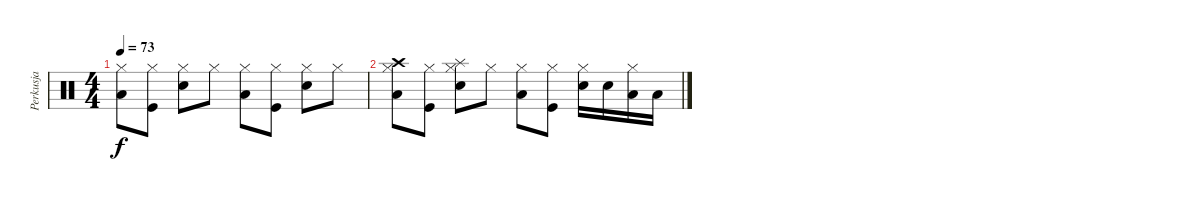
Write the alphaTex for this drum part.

\track ("Perkusja" "Perkusja") {instrument percussion}
\staff {score}
\articulation defaults
\ts (4 4)
\tempo 73
\clef neutral
\ks c
("Hi-Hat (closed)" "Low Tom (hit)").8{dy f} ("Hi-Hat (closed)" "Kick (hit)").8 ("Hi-Hat (closed)" "Electric Snare (hit)").8 "Hi-Hat (closed)".8 ("Hi-Hat (closed)" "Low Tom (hit)").8 ("Hi-Hat (closed)" "Kick (hit)").8 ("Hi-Hat (closed)" "Electric Snare (hit)").8 "Hi-Hat (closed)".8 |
("Hi-Hat (closed)" "Low Tom (hit)" "Crash high (hit)").8 ("Hi-Hat (closed)" "Kick (hit)").8 ("Hi-Hat (closed)" "Electric Snare (hit)" "Splash (hit)").8 "Hi-Hat (closed)".8 ("Hi-Hat (closed)" "Low Tom (hit)").8 ("Hi-Hat (closed)" "Kick (hit)").8 ("Hi-Hat (closed)" "Electric Snare (hit)").16 "Electric Snare (hit)".16 ("Hi-Hat (closed)" "Low Tom (hit)").16 "Low Tom (hit)".16
